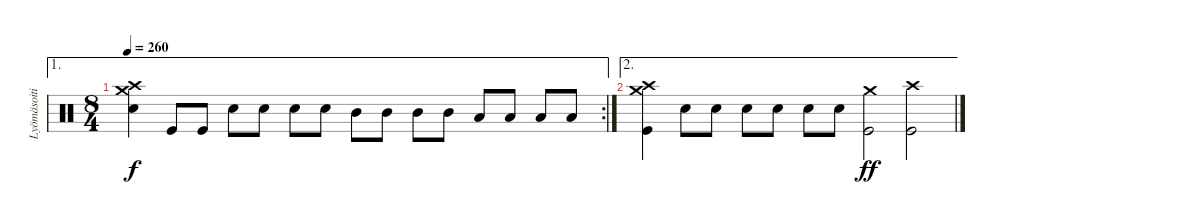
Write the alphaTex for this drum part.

\track ("Lyömäsoitin" "Lyömäsoiti") {instrument percussion}
\staff {score}
\articulation defaults
\ae 1
\rc 2
\ts (8 4)
\tempo 260
\clef neutral
\ks c
("Crash medium (hit)" "Crash high (hit)" "Snare (hit) 2").4{dy f} "Kick (hit)".8 "Kick (hit)".8 "Snare (hit) 2".8 "Snare (hit) 2".8 "Snare (hit) 2".8 "Snare (hit) 2".8 "Mid Tom (hit)".8 "Mid Tom (hit)".8 "Mid Tom (hit)".8 "Mid Tom (hit)".8 "Low Tom (hit)".8 "Low Tom (hit)".8 "Low Tom (hit)".8 "Low Tom (hit)".8 |
\ae 2
("Crash medium (hit)" "Crash high (hit)" "Kick (hit)").4 "Snare (hit) 2".8 "Snare (hit) 2".8 "Snare (hit) 2".8 "Snare (hit) 2".8 "Snare (hit) 2".8 "Snare (hit) 2".8 ("Crash medium (hit)" "Kick (hit)").2{dy ff} ("Crash high (hit)" "Kick (hit)").2
